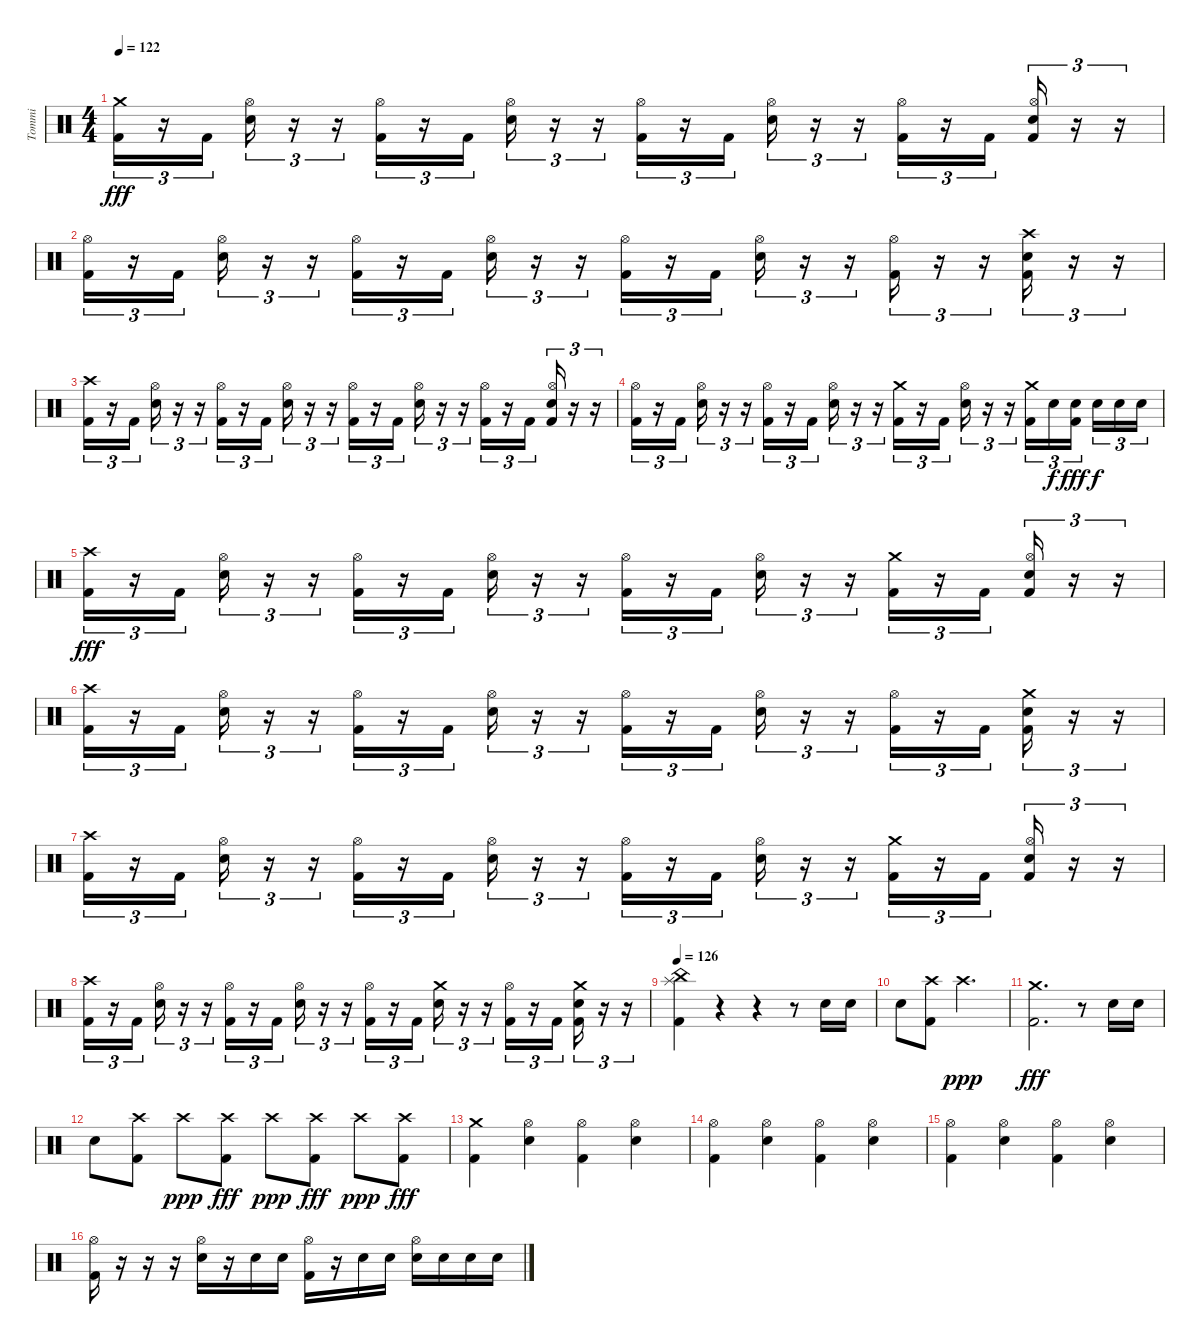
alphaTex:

\track ("Tommi" "Tommi") {instrument percussion}
\staff {score}
\articulation defaults
\ts (4 4)
\tempo 122
\clef neutral
\ks c
("Crash medium (hit)" "Kick (hit) 2").16{tu (3 2) dy fff} r.16{tu (3 2)} "Kick (hit) 2".16{tu (3 2)} ("Hi-Hat (open)" "Snare (hit) 2").16{tu (3 2)} r.16{tu (3 2)} r.16{tu (3 2)} ("Hi-Hat (open)" "Kick (hit) 2").16{tu (3 2)} r.16{tu (3 2)} "Kick (hit) 2".16{tu (3 2)} ("Hi-Hat (open)" "Snare (hit) 2").16{tu (3 2)} r.16{tu (3 2)} r.16{tu (3 2)} ("Hi-Hat (open)" "Kick (hit) 2").16{tu (3 2)} r.16{tu (3 2)} "Kick (hit) 2".16{tu (3 2)} ("Hi-Hat (open)" "Snare (hit) 2").16{tu (3 2)} r.16{tu (3 2)} r.16{tu (3 2)} ("Hi-Hat (open)" "Kick (hit) 2").16{tu (3 2)} r.16{tu (3 2)} "Kick (hit) 2".16{tu (3 2)} ("Hi-Hat (open)" "Snare (hit) 2" "Kick (hit) 2").16{tu (3 2)} r.16{tu (3 2)} r.16{tu (3 2)} |
("Hi-Hat (open)" "Kick (hit) 2").16{tu (3 2)} r.16{tu (3 2)} "Kick (hit) 2".16{tu (3 2)} ("Hi-Hat (open)" "Snare (hit) 2").16{tu (3 2)} r.16{tu (3 2)} r.16{tu (3 2)} ("Hi-Hat (open)" "Kick (hit) 2").16{tu (3 2)} r.16{tu (3 2)} "Kick (hit) 2".16{tu (3 2)} ("Hi-Hat (open)" "Snare (hit) 2").16{tu (3 2)} r.16{tu (3 2)} r.16{tu (3 2)} ("Hi-Hat (open)" "Kick (hit) 2").16{tu (3 2)} r.16{tu (3 2)} "Kick (hit) 2".16{tu (3 2)} ("Hi-Hat (open)" "Snare (hit) 2").16{tu (3 2)} r.16{tu (3 2)} r.16{tu (3 2)} ("Hi-Hat (open)" "Kick (hit) 2").16{tu (3 2)} r.16{tu (3 2)} r.16{tu (3 2)} ("Crash high (hit)" "Snare (hit) 2" "Kick (hit) 2").16{tu (3 2)} r.16{tu (3 2)} r.16{tu (3 2)} |
("Crash high (hit)" "Kick (hit) 2").16{tu (3 2)} r.16{tu (3 2)} "Kick (hit) 2".16{tu (3 2)} ("Hi-Hat (open)" "Snare (hit) 2").16{tu (3 2)} r.16{tu (3 2)} r.16{tu (3 2)} ("Hi-Hat (open)" "Kick (hit) 2").16{tu (3 2)} r.16{tu (3 2)} "Kick (hit) 2".16{tu (3 2)} ("Hi-Hat (open)" "Snare (hit) 2").16{tu (3 2)} r.16{tu (3 2)} r.16{tu (3 2)} ("Hi-Hat (open)" "Kick (hit) 2").16{tu (3 2)} r.16{tu (3 2)} "Kick (hit) 2".16{tu (3 2)} ("Hi-Hat (open)" "Snare (hit) 2").16{tu (3 2)} r.16{tu (3 2)} r.16{tu (3 2)} ("Hi-Hat (open)" "Kick (hit) 2").16{tu (3 2)} r.16{tu (3 2)} "Kick (hit) 2".16{tu (3 2)} ("Hi-Hat (open)" "Snare (hit) 2" "Kick (hit) 2").16{tu (3 2)} r.16{tu (3 2)} r.16{tu (3 2)} |
("Hi-Hat (open)" "Kick (hit) 2").16{tu (3 2)} r.16{tu (3 2)} "Kick (hit) 2".16{tu (3 2)} ("Hi-Hat (open)" "Snare (hit) 2").16{tu (3 2)} r.16{tu (3 2)} r.16{tu (3 2)} ("Hi-Hat (open)" "Kick (hit) 2").16{tu (3 2)} r.16{tu (3 2)} "Kick (hit) 2".16{tu (3 2)} ("Hi-Hat (open)" "Snare (hit) 2").16{tu (3 2)} r.16{tu (3 2)} r.16{tu (3 2)} ("Crash medium (hit)" "Kick (hit) 2").16{tu (3 2)} r.16{tu (3 2)} "Kick (hit) 2".16{tu (3 2)} ("Hi-Hat (open)" "Snare (hit) 2").16{tu (3 2)} r.16{tu (3 2)} r.16{tu (3 2)} ("Crash medium (hit)" "Kick (hit) 2").16{tu (3 2)} "Snare (hit) 2".16{tu (3 2) dy f} ("Snare (hit) 2" "Kick (hit) 2").16{tu (3 2) dy fff beam splitsecondary} "Snare (hit) 2".16{tu (3 2) dy f} "Snare (hit) 2".16{tu (3 2)} "Snare (hit) 2".16{tu (3 2)} |
("Crash high (hit)" "Kick (hit) 2").16{tu (3 2) dy fff} r.16{tu (3 2)} "Kick (hit) 2".16{tu (3 2)} ("Hi-Hat (open)" "Snare (hit) 2").16{tu (3 2)} r.16{tu (3 2)} r.16{tu (3 2)} ("Hi-Hat (open)" "Kick (hit) 2").16{tu (3 2)} r.16{tu (3 2)} "Kick (hit) 2".16{tu (3 2)} ("Hi-Hat (open)" "Snare (hit) 2").16{tu (3 2)} r.16{tu (3 2)} r.16{tu (3 2)} ("Hi-Hat (open)" "Kick (hit) 2").16{tu (3 2)} r.16{tu (3 2)} "Kick (hit) 2".16{tu (3 2)} ("Hi-Hat (open)" "Snare (hit) 2").16{tu (3 2)} r.16{tu (3 2)} r.16{tu (3 2)} ("Crash medium (hit)" "Kick (hit) 2").16{tu (3 2)} r.16{tu (3 2)} "Kick (hit) 2".16{tu (3 2)} ("Hi-Hat (open)" "Snare (hit) 2" "Kick (hit) 2").16{tu (3 2)} r.16{tu (3 2)} r.16{tu (3 2)} |
("Crash high (hit)" "Kick (hit) 2").16{tu (3 2)} r.16{tu (3 2)} "Kick (hit) 2".16{tu (3 2)} ("Hi-Hat (open)" "Snare (hit) 2").16{tu (3 2)} r.16{tu (3 2)} r.16{tu (3 2)} ("Hi-Hat (open)" "Kick (hit) 2").16{tu (3 2)} r.16{tu (3 2)} "Kick (hit) 2".16{tu (3 2)} ("Hi-Hat (open)" "Snare (hit) 2").16{tu (3 2)} r.16{tu (3 2)} r.16{tu (3 2)} ("Hi-Hat (open)" "Kick (hit) 2").16{tu (3 2)} r.16{tu (3 2)} "Kick (hit) 2".16{tu (3 2)} ("Hi-Hat (open)" "Snare (hit) 2").16{tu (3 2)} r.16{tu (3 2)} r.16{tu (3 2)} ("Hi-Hat (open)" "Kick (hit) 2").16{tu (3 2)} r.16{tu (3 2)} "Kick (hit) 2".16{tu (3 2)} ("Crash medium (hit)" "Snare (hit) 2" "Kick (hit) 2").16{tu (3 2)} r.16{tu (3 2)} r.16{tu (3 2)} |
("Crash high (hit)" "Kick (hit) 2").16{tu (3 2)} r.16{tu (3 2)} "Kick (hit) 2".16{tu (3 2)} ("Hi-Hat (open)" "Snare (hit) 2").16{tu (3 2)} r.16{tu (3 2)} r.16{tu (3 2)} ("Hi-Hat (open)" "Kick (hit) 2").16{tu (3 2)} r.16{tu (3 2)} "Kick (hit) 2".16{tu (3 2)} ("Hi-Hat (open)" "Snare (hit) 2").16{tu (3 2)} r.16{tu (3 2)} r.16{tu (3 2)} ("Hi-Hat (open)" "Kick (hit) 2").16{tu (3 2)} r.16{tu (3 2)} "Kick (hit) 2".16{tu (3 2)} ("Hi-Hat (open)" "Snare (hit) 2").16{tu (3 2)} r.16{tu (3 2)} r.16{tu (3 2)} ("Crash medium (hit)" "Kick (hit) 2").16{tu (3 2)} r.16{tu (3 2)} "Kick (hit) 2".16{tu (3 2)} ("Hi-Hat (open)" "Snare (hit) 2" "Kick (hit) 2").16{tu (3 2)} r.16{tu (3 2)} r.16{tu (3 2)} |
("Crash high (hit)" "Kick (hit) 2").16{tu (3 2)} r.16{tu (3 2)} "Kick (hit) 2".16{tu (3 2)} ("Hi-Hat (open)" "Snare (hit) 2").16{tu (3 2)} r.16{tu (3 2)} r.16{tu (3 2)} ("Hi-Hat (open)" "Kick (hit) 2").16{tu (3 2)} r.16{tu (3 2)} "Kick (hit) 2".16{tu (3 2)} ("Hi-Hat (open)" "Snare (hit) 2").16{tu (3 2)} r.16{tu (3 2)} r.16{tu (3 2)} ("Hi-Hat (open)" "Kick (hit) 2").16{tu (3 2)} r.16{tu (3 2)} "Kick (hit) 2".16{tu (3 2)} ("Crash medium (hit)" "Snare (hit) 2").16{tu (3 2)} r.16{tu (3 2)} r.16{tu (3 2)} ("Hi-Hat (open)" "Kick (hit) 2").16{tu (3 2)} r.16{tu (3 2)} "Kick (hit) 2".16{tu (3 2)} ("Crash medium (hit)" "Snare (hit) 2" "Kick (hit) 2").16{tu (3 2)} r.16{tu (3 2)} r.16{tu (3 2)} |
\tempo 126
("Splash (hit)" "China (hit)" "Kick (hit) 2").4 r.4 r.4 r.8 "Snare (hit) 2".16 "Snare (hit) 2".16 |
"Snare (hit) 2".8 ("Crash high (hit)" "Kick (hit) 2").8 "Crash high (hit)".2{d dy ppp} |
("Crash medium (hit)" "Kick (hit) 2").2{d dy fff} r.8 "Snare (hit) 2".16 "Snare (hit) 2".16 |
"Snare (hit) 2".8 ("Crash high (hit)" "Kick (hit) 2").8 "Crash high (hit)".8{dy ppp} ("Crash high (hit)" "Kick (hit) 2").8{dy fff} "Crash high (hit)".8{dy ppp} ("Crash high (hit)" "Kick (hit) 2").8{dy fff} "Crash high (hit)".8{dy ppp} ("Crash high (hit)" "Kick (hit) 2").8{dy fff} |
("Crash medium (hit)" "Kick (hit) 2").4 ("Hi-Hat (open)" "Snare (hit) 2").4 ("Hi-Hat (open)" "Kick (hit) 2").4 ("Hi-Hat (open)" "Snare (hit) 2").4 |
("Hi-Hat (open)" "Kick (hit) 2").4 ("Hi-Hat (open)" "Snare (hit) 2").4 ("Hi-Hat (open)" "Kick (hit) 2").4 ("Hi-Hat (open)" "Snare (hit) 2").4 |
("Hi-Hat (open)" "Kick (hit) 2").4 ("Hi-Hat (open)" "Snare (hit) 2").4 ("Hi-Hat (open)" "Kick (hit) 2").4 ("Hi-Hat (open)" "Snare (hit) 2").4 |
("Hi-Hat (open)" "Kick (hit) 2").16 r.16 r.16 r.16 ("Hi-Hat (open)" "Snare (hit) 2").16 r.16 "Snare (hit) 2".16 "Snare (hit) 2".16 ("Hi-Hat (open)" "Kick (hit) 2").16 r.16 "Snare (hit) 2".16 "Snare (hit) 2".16 ("Hi-Hat (open)" "Snare (hit) 2").16 "Snare (hit) 2".16 "Snare (hit) 2".16 "Snare (hit) 2".16
